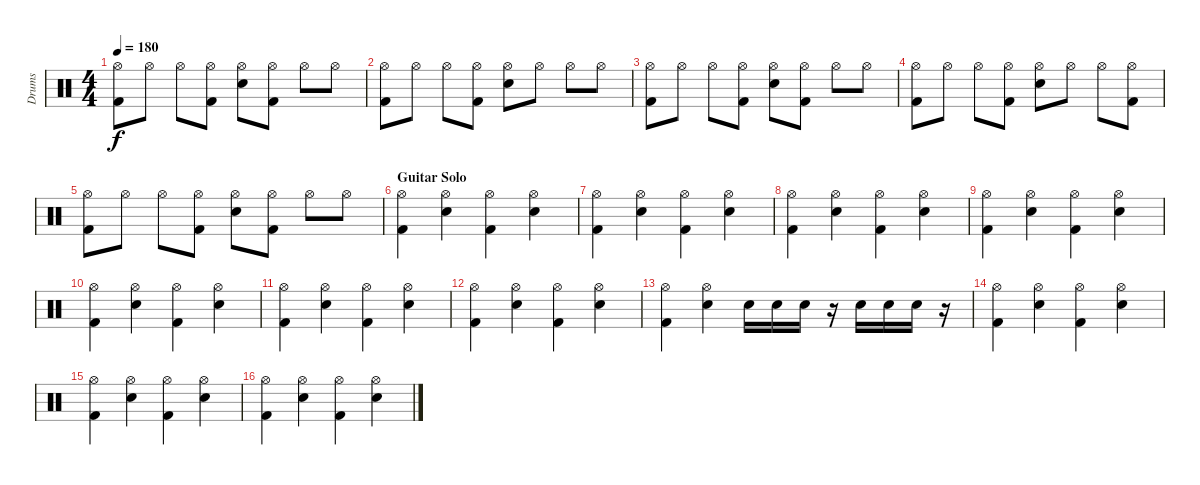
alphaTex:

\track ("Drums" "Drums") {instrument percussion}
\staff {score}
\articulation defaults
\ts (4 4)
\tempo 180
\clef neutral
\ks c
("Hi-Hat (open)" "Kick (hit) 2").8{dy f} "Hi-Hat (open)".8 "Hi-Hat (open)".8 ("Hi-Hat (open)" "Kick (hit) 2").8 ("Hi-Hat (open)" "Electric Snare (hit)").8 ("Hi-Hat (open)" "Kick (hit) 2").8 "Hi-Hat (open)".8 "Hi-Hat (open)".8 |
("Hi-Hat (open)" "Kick (hit) 2").8 "Hi-Hat (open)".8 "Hi-Hat (open)".8 ("Hi-Hat (open)" "Kick (hit) 2").8 ("Hi-Hat (open)" "Electric Snare (hit)").8 "Hi-Hat (open)".8 "Hi-Hat (open)".8 "Hi-Hat (open)".8 |
("Hi-Hat (open)" "Kick (hit) 2").8 "Hi-Hat (open)".8 "Hi-Hat (open)".8 ("Hi-Hat (open)" "Kick (hit) 2").8 ("Hi-Hat (open)" "Electric Snare (hit)").8 ("Hi-Hat (open)" "Kick (hit) 2").8 "Hi-Hat (open)".8 "Hi-Hat (open)".8 |
("Hi-Hat (open)" "Kick (hit) 2").8 "Hi-Hat (open)".8 "Hi-Hat (open)".8 ("Hi-Hat (open)" "Kick (hit) 2").8 ("Hi-Hat (open)" "Electric Snare (hit)").8 "Hi-Hat (open)".8 "Hi-Hat (open)".8 ("Hi-Hat (open)" "Kick (hit) 2").8 |
("Hi-Hat (open)" "Kick (hit) 2").8 "Hi-Hat (open)".8 "Hi-Hat (open)".8 ("Hi-Hat (open)" "Kick (hit) 2").8 ("Hi-Hat (open)" "Electric Snare (hit)").8 ("Hi-Hat (open)" "Kick (hit) 2").8 "Hi-Hat (open)".8 "Hi-Hat (open)".8 |
\section ("" "Guitar Solo")
("Hi-Hat (open)" "Kick (hit) 2").4 ("Hi-Hat (open)" "Electric Snare (hit)").4 ("Hi-Hat (open)" "Kick (hit) 2").4 ("Hi-Hat (open)" "Electric Snare (hit)").4 |
("Hi-Hat (open)" "Kick (hit) 2").4 ("Hi-Hat (open)" "Electric Snare (hit)").4 ("Hi-Hat (open)" "Kick (hit) 2").4 ("Hi-Hat (open)" "Electric Snare (hit)").4 |
("Hi-Hat (open)" "Kick (hit) 2").4 ("Hi-Hat (open)" "Electric Snare (hit)").4 ("Hi-Hat (open)" "Kick (hit) 2").4 ("Hi-Hat (open)" "Electric Snare (hit)").4 |
("Hi-Hat (open)" "Kick (hit) 2").4 ("Hi-Hat (open)" "Electric Snare (hit)").4 ("Hi-Hat (open)" "Kick (hit) 2").4 ("Hi-Hat (open)" "Electric Snare (hit)").4 |
("Hi-Hat (open)" "Kick (hit) 2").4 ("Hi-Hat (open)" "Electric Snare (hit)").4 ("Hi-Hat (open)" "Kick (hit) 2").4 ("Hi-Hat (open)" "Electric Snare (hit)").4 |
("Hi-Hat (open)" "Kick (hit) 2").4 ("Hi-Hat (open)" "Electric Snare (hit)").4 ("Hi-Hat (open)" "Kick (hit) 2").4 ("Hi-Hat (open)" "Electric Snare (hit)").4 |
("Hi-Hat (open)" "Kick (hit) 2").4 ("Hi-Hat (open)" "Electric Snare (hit)").4 ("Hi-Hat (open)" "Kick (hit) 2").4 ("Hi-Hat (open)" "Electric Snare (hit)").4 |
("Hi-Hat (open)" "Kick (hit) 2").4 ("Hi-Hat (open)" "Electric Snare (hit)").4 "Electric Snare (hit)".16 "Electric Snare (hit)".16 "Electric Snare (hit)".16 r.16 "Electric Snare (hit)".16 "Electric Snare (hit)".16 "Electric Snare (hit)".16 r.16 |
("Hi-Hat (open)" "Kick (hit) 2").4 ("Hi-Hat (open)" "Electric Snare (hit)").4 ("Hi-Hat (open)" "Kick (hit) 2").4 ("Hi-Hat (open)" "Electric Snare (hit)").4 |
("Hi-Hat (open)" "Kick (hit) 2").4 ("Hi-Hat (open)" "Electric Snare (hit)").4 ("Hi-Hat (open)" "Kick (hit) 2").4 ("Hi-Hat (open)" "Electric Snare (hit)").4 |
("Hi-Hat (open)" "Kick (hit) 2").4 ("Hi-Hat (open)" "Electric Snare (hit)").4 ("Hi-Hat (open)" "Kick (hit) 2").4 ("Hi-Hat (open)" "Electric Snare (hit)").4
